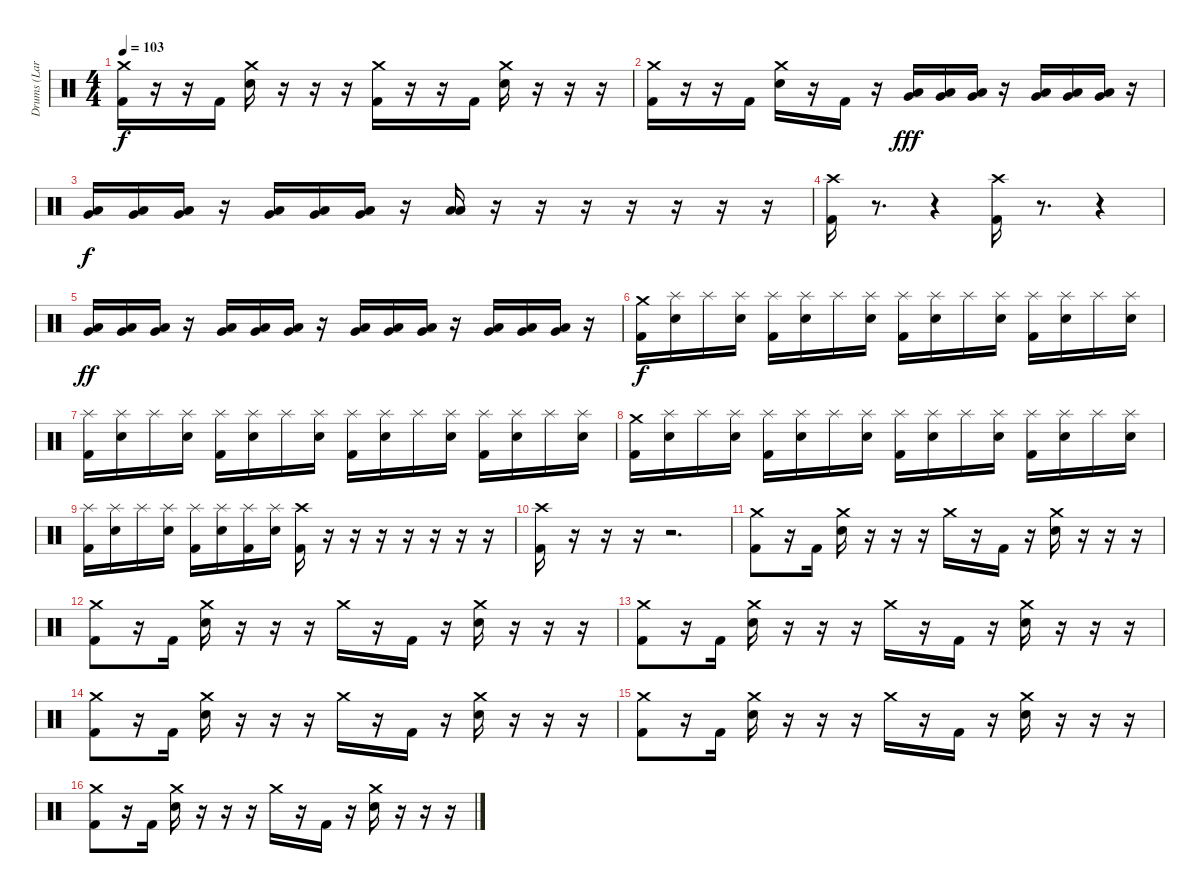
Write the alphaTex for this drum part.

\track ("Drums (Lars)" "Drums (Lar") {instrument percussion}
\staff {score}
\articulation defaults
\ts (4 4)
\tempo 103
\clef neutral
\ks c
("Crash medium (hit)" "Kick (hit) 2").16{dy f} r.16 r.16 "Kick (hit) 2".16 ("Crash medium (hit)" "Snare (hit) 2").16 r.16 r.16 r.16 ("Crash medium (hit)" "Kick (hit) 2").16 r.16 r.16 "Kick (hit) 2".16 ("Crash medium (hit)" "Snare (hit) 2").16 r.16 r.16 r.16 |
("Crash medium (hit)" "Kick (hit) 2").16 r.16 r.16 "Kick (hit) 2".16 ("Crash medium (hit)" "Snare (hit) 2").16 r.16 "Kick (hit) 2".16 r.16 ("Very Low Tom (hit)" "Low Tom (hit)").16{dy fff} ("Very Low Tom (hit)" "Low Tom (hit)").16 ("Very Low Tom (hit)" "Low Tom (hit)").16 r.16 ("Very Low Tom (hit)" "Low Tom (hit)").16 ("Very Low Tom (hit)" "Low Tom (hit)").16 ("Very Low Tom (hit)" "Low Tom (hit)").16 r.16 |
("Very Low Tom (hit)" "Low Tom (hit)").16{dy f} ("Very Low Tom (hit)" "Low Tom (hit)").16 ("Very Low Tom (hit)" "Low Tom (hit)").16 r.16 ("Very Low Tom (hit)" "Low Tom (hit)").16 ("Very Low Tom (hit)" "Low Tom (hit)").16 ("Very Low Tom (hit)" "Low Tom (hit)").16 r.16 ("Low Floor Tom (hit)" "Low Floor Tom (hit)").16 r.16 r.16 r.16 r.16 r.16 r.16 r.16 |
("Crash high (hit)" "Kick (hit) 2").16 r.8{d} r.4 ("Crash high (hit)" "Kick (hit) 2").16 r.8{d} r.4 |
("Very Low Tom (hit)" "Low Tom (hit)").16{dy ff} ("Very Low Tom (hit)" "Low Tom (hit)").16 ("Very Low Tom (hit)" "Low Tom (hit)").16 r.16 ("Very Low Tom (hit)" "Low Tom (hit)").16 ("Very Low Tom (hit)" "Low Tom (hit)").16 ("Very Low Tom (hit)" "Low Tom (hit)").16 r.16 ("Very Low Tom (hit)" "Low Tom (hit)").16 ("Very Low Tom (hit)" "Low Tom (hit)").16 ("Very Low Tom (hit)" "Low Tom (hit)").16 r.16 ("Very Low Tom (hit)" "Low Tom (hit)").16 ("Very Low Tom (hit)" "Low Tom (hit)").16 ("Very Low Tom (hit)" "Low Tom (hit)").16 r.16 |
("Crash medium (hit)" "Kick (hit) 2").16{dy f} ("Splash (hit)" "Snare (hit) 2").16 "Splash (hit)".16 ("Splash (hit)" "Snare (hit) 2").16 ("Splash (hit)" "Kick (hit) 2").16 ("Splash (hit)" "Snare (hit) 2").16 "Splash (hit)".16 ("Splash (hit)" "Snare (hit) 2").16 ("Splash (hit)" "Kick (hit) 2").16 ("Splash (hit)" "Snare (hit) 2").16 "Splash (hit)".16 ("Splash (hit)" "Snare (hit) 2").16 ("Splash (hit)" "Kick (hit) 2").16 ("Splash (hit)" "Snare (hit) 2").16 "Splash (hit)".16 ("Splash (hit)" "Snare (hit) 2").16 |
("Splash (hit)" "Kick (hit) 2").16 ("Splash (hit)" "Snare (hit) 2").16 "Splash (hit)".16 ("Splash (hit)" "Snare (hit) 2").16 ("Splash (hit)" "Kick (hit) 2").16 ("Splash (hit)" "Snare (hit) 2").16 "Splash (hit)".16 ("Splash (hit)" "Snare (hit) 2").16 ("Splash (hit)" "Kick (hit) 2").16 ("Splash (hit)" "Snare (hit) 2").16 "Splash (hit)".16 ("Splash (hit)" "Snare (hit) 2").16 ("Splash (hit)" "Kick (hit) 2").16 ("Splash (hit)" "Snare (hit) 2").16 "Splash (hit)".16 ("Splash (hit)" "Snare (hit) 2").16 |
("Crash medium (hit)" "Kick (hit) 2").16 ("Splash (hit)" "Snare (hit) 2").16 "Splash (hit)".16 ("Splash (hit)" "Snare (hit) 2").16 ("Splash (hit)" "Kick (hit) 2").16 ("Splash (hit)" "Snare (hit) 2").16 "Splash (hit)".16 ("Splash (hit)" "Snare (hit) 2").16 ("Splash (hit)" "Kick (hit) 2").16 ("Splash (hit)" "Snare (hit) 2").16 "Splash (hit)".16 ("Splash (hit)" "Snare (hit) 2").16 ("Splash (hit)" "Kick (hit) 2").16 ("Splash (hit)" "Snare (hit) 2").16 "Splash (hit)".16 ("Splash (hit)" "Snare (hit) 2").16 |
("Splash (hit)" "Kick (hit) 2").16 ("Splash (hit)" "Snare (hit) 2").16 "Splash (hit)".16 ("Splash (hit)" "Snare (hit) 2").16 ("Splash (hit)" "Kick (hit) 2").16 ("Splash (hit)" "Snare (hit) 2").16 ("Splash (hit)" "Kick (hit) 2").16 ("Splash (hit)" "Snare (hit) 2").16 ("Crash high (hit)" "Kick (hit) 2").16 r.16 r.16 r.16 r.16 r.16 r.16 r.16 |
("Crash high (hit)" "Kick (hit) 2").16 r.16 r.16 r.16 r.2{d} |
("Crash medium (hit)" "Kick (hit) 2").8 r.16 "Kick (hit) 2".16 ("Crash medium (hit)" "Snare (hit) 2").16 r.16 r.16 r.16 "Crash medium (hit)".16 r.16 "Kick (hit) 2".16 r.16 ("Crash medium (hit)" "Snare (hit) 2").16 r.16 r.16 r.16 |
("Crash medium (hit)" "Kick (hit) 2").8 r.16 "Kick (hit) 2".16 ("Crash medium (hit)" "Snare (hit) 2").16 r.16 r.16 r.16 "Crash medium (hit)".16 r.16 "Kick (hit) 2".16 r.16 ("Crash medium (hit)" "Snare (hit) 2").16 r.16 r.16 r.16 |
("Crash medium (hit)" "Kick (hit) 2").8 r.16 "Kick (hit) 2".16 ("Crash medium (hit)" "Snare (hit) 2").16 r.16 r.16 r.16 "Crash medium (hit)".16 r.16 "Kick (hit) 2".16 r.16 ("Crash medium (hit)" "Snare (hit) 2").16 r.16 r.16 r.16 |
("Crash medium (hit)" "Kick (hit) 2").8 r.16 "Kick (hit) 2".16 ("Crash medium (hit)" "Snare (hit) 2").16 r.16 r.16 r.16 "Crash medium (hit)".16 r.16 "Kick (hit) 2".16 r.16 ("Crash medium (hit)" "Snare (hit) 2").16 r.16 r.16 r.16 |
("Crash medium (hit)" "Kick (hit) 2").8 r.16 "Kick (hit) 2".16 ("Crash medium (hit)" "Snare (hit) 2").16 r.16 r.16 r.16 "Crash medium (hit)".16 r.16 "Kick (hit) 2".16 r.16 ("Crash medium (hit)" "Snare (hit) 2").16 r.16 r.16 r.16 |
("Crash medium (hit)" "Kick (hit) 2").8 r.16 "Kick (hit) 2".16 ("Crash medium (hit)" "Snare (hit) 2").16 r.16 r.16 r.16 "Crash medium (hit)".16 r.16 "Kick (hit) 2".16 r.16 ("Crash medium (hit)" "Snare (hit) 2").16 r.16 r.16 r.16
